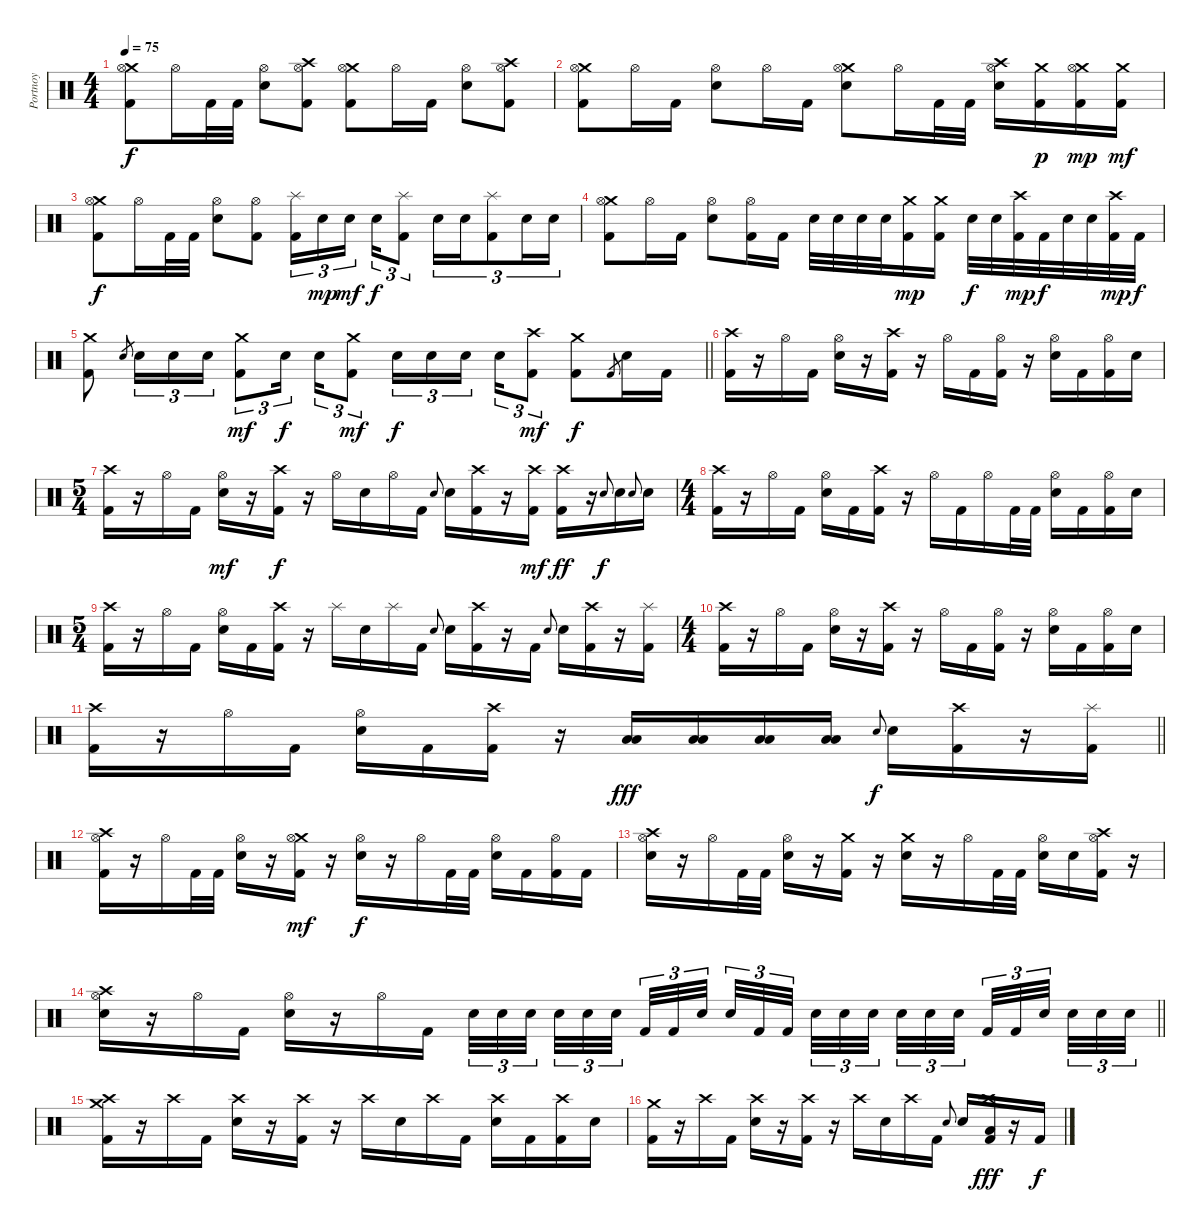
\track ("Portnoy" "Portnoy") {instrument percussion}
\staff {score}
\articulation defaults
\ts (4 4)
\tempo 75
\clef neutral
\ks c
("Crash medium (hit)" "Hi-Hat (open)" "Kick (hit) 2").8{dy f} "Hi-Hat (open)".16 "Kick (hit) 2".32 "Kick (hit) 2".32 ("Hi-Hat (open)" "Electric Snare (hit)").8 ("Crash high (hit)" "Hi-Hat (open)" "Kick (hit) 2").8 ("Crash medium (hit)" "Hi-Hat (open)" "Kick (hit) 2").8 "Hi-Hat (open)".16 "Kick (hit) 2".16 ("Hi-Hat (open)" "Electric Snare (hit)").8 ("Crash high (hit)" "Hi-Hat (open)" "Kick (hit) 2").8 |
("Crash medium (hit)" "Hi-Hat (open)" "Kick (hit) 2").8 "Hi-Hat (open)".16 "Kick (hit) 2".16 ("Hi-Hat (open)" "Electric Snare (hit)").8 "Hi-Hat (open)".16 "Kick (hit) 2".16 ("Crash medium (hit)" "Hi-Hat (open)" "Electric Snare (hit)").8 "Hi-Hat (open)".16 "Kick (hit) 2".32 "Kick (hit) 2".32 ("Crash high (hit)" "Hi-Hat (open)" "Electric Snare (hit)").16 ("Crash medium (hit)" "Kick (hit) 2").16{dy p} ("Crash medium (hit)" "Hi-Hat (open)" "Kick (hit) 2").16{dy mp} ("Crash medium (hit)" "Kick (hit) 2").16{dy mf} |
("Crash medium (hit)" "Hi-Hat (open)" "Kick (hit) 2").8{dy f} "Hi-Hat (open)".16 "Kick (hit) 2".32 "Kick (hit) 2".32 ("Hi-Hat (open)" "Electric Snare (hit)").8 ("Hi-Hat (open)" "Kick (hit) 2").8 ("Splash (hit)" "Kick (hit) 2").16{tu (3 2)} "Electric Snare (hit)".16{tu (3 2) dy mp} "Electric Snare (hit)".16{tu (3 2) dy mf beam splitsecondary} "Electric Snare (hit)".16{tu (3 2) dy f} ("Splash (hit)" "Kick (hit) 2").8{tu (3 2)} "Electric Snare (hit)".16{tu (3 2)} "Electric Snare (hit)".16{tu (3 2)} ("Splash (hit)" "Kick (hit) 2").8{tu (3 2)} "Electric Snare (hit)".16{tu (3 2)} "Electric Snare (hit)".16{tu (3 2)} |
("Crash medium (hit)" "Hi-Hat (open)" "Kick (hit) 2").8 "Hi-Hat (open)".16 "Kick (hit) 2".16 ("Hi-Hat (open)" "Electric Snare (hit)").8 ("Hi-Hat (open)" "Kick (hit) 2").16 "Kick (hit) 2".16 "Electric Snare (hit)".32 "Electric Snare (hit)".32 "Electric Snare (hit)".32 "Electric Snare (hit)".32 ("Crash medium (hit)" "Kick (hit) 2").16{dy mp} ("Crash medium (hit)" "Kick (hit) 2").16 "Electric Snare (hit)".32{dy f} "Electric Snare (hit)".32 ("Crash high (hit)" "Kick (hit) 2").32{dy mp} "Kick (hit) 2".32{dy f} "Electric Snare (hit)".32 "Electric Snare (hit)".32 ("Crash high (hit)" "Kick (hit) 2").32{dy mp} "Kick (hit) 2".32{dy f} |
\barLineRight lightlight
("Crash medium (hit)" "Kick (hit) 2").8 "Electric Snare (hit)".8{gr} "Electric Snare (hit)".16{tu (3 2)} "Electric Snare (hit)".16{tu (3 2)} "Electric Snare (hit)".16{tu (3 2)} ("Crash medium (hit)" "Kick (hit) 2").8{tu (3 2) dy mf} "Electric Snare (hit)".16{tu (3 2) dy f beam splitsecondary} "Electric Snare (hit)".16{tu (3 2)} ("Crash medium (hit)" "Kick (hit) 2").8{tu (3 2) dy mf} "Electric Snare (hit)".16{tu (3 2) dy f} "Electric Snare (hit)".16{tu (3 2)} "Electric Snare (hit)".16{tu (3 2) beam splitsecondary} "Electric Snare (hit)".16{tu (3 2)} ("Crash high (hit)" "Kick (hit) 2").8{tu (3 2) dy mf} ("Crash medium (hit)" "Kick (hit) 2").8{dy f} "Kick (hit) 2".8{gr} "Electric Snare (hit)".16 "Kick (hit) 2".16 |
("Crash high (hit)" "Kick (hit) 2").16 r.16 "Hi-Hat (open)".16 "Kick (hit) 2".16 ("Hi-Hat (open)" "Electric Snare (hit)").16 r.16 ("Crash high (hit)" "Kick (hit) 2").16 r.16 "Hi-Hat (open)".16 "Kick (hit) 2".16 ("Hi-Hat (open)" "Kick (hit) 2").16 r.16 ("Hi-Hat (open)" "Electric Snare (hit)").16 "Kick (hit) 2".16 ("Hi-Hat (open)" "Kick (hit) 2").16 "Electric Snare (hit)".16 |
\ts (5 4)
("Crash high (hit)" "Kick (hit) 2").16 r.16 "Hi-Hat (open)".16 "Kick (hit) 2".16 ("Hi-Hat (open)" "Electric Snare (hit)").16{dy mf} r.16 ("Crash high (hit)" "Kick (hit) 2").16{dy f} r.16 "Hi-Hat (open)".16 "Electric Snare (hit)".16 "Hi-Hat (open)".16 "Kick (hit) 2".16 "Electric Snare (hit)".8{gr onbeat} "Electric Snare (hit)".16 ("Crash high (hit)" "Kick (hit) 2").16 r.16 ("Crash high (hit)" "Kick (hit) 2").16{dy mf} ("Crash high (hit)" "Kick (hit) 2").16{dy ff} r.16 "Electric Snare (hit)".8{gr onbeat dy f} "Electric Snare (hit)".16 "Electric Snare (hit)".8{gr onbeat} "Electric Snare (hit)".16 |
\ts (4 4)
("Crash high (hit)" "Kick (hit) 2").16 r.16 "Hi-Hat (open)".16 "Kick (hit) 2".16 ("Hi-Hat (open)" "Electric Snare (hit)").16 "Kick (hit) 2".16 ("Crash high (hit)" "Kick (hit) 2").16 r.16 "Hi-Hat (open)".16 "Kick (hit) 2".16 "Hi-Hat (open)".16 "Kick (hit) 2".32 "Kick (hit) 2".32 ("Hi-Hat (open)" "Electric Snare (hit)").16 "Kick (hit) 2".16 ("Hi-Hat (open)" "Kick (hit) 2").16 "Electric Snare (hit)".16 |
\ts (5 4)
("Crash high (hit)" "Kick (hit) 2").16 r.16 "Hi-Hat (open)".16 "Kick (hit) 2".16 ("Hi-Hat (open)" "Electric Snare (hit)").16 "Kick (hit) 2".16 ("Crash high (hit)" "Kick (hit) 2").16 r.16 "Splash (hit)".16 "Electric Snare (hit)".16 "Splash (hit)".16 "Kick (hit) 2".16 "Electric Snare (hit)".8{gr onbeat} "Electric Snare (hit)".16 ("Crash high (hit)" "Kick (hit) 2").16 r.16 "Kick (hit) 2".16 "Electric Snare (hit)".8{gr onbeat} "Electric Snare (hit)".16 ("Crash high (hit)" "Kick (hit) 2").16 r.16 ("Splash (hit)" "Kick (hit) 2").16 |
\ts (4 4)
("Crash high (hit)" "Kick (hit) 2").16 r.16 "Hi-Hat (open)".16 "Kick (hit) 2".16 ("Hi-Hat (open)" "Electric Snare (hit)").16 r.16 ("Crash high (hit)" "Kick (hit) 2").16 r.16 "Hi-Hat (open)".16 "Kick (hit) 2".16 ("Hi-Hat (open)" "Kick (hit) 2").16 r.16 ("Hi-Hat (open)" "Electric Snare (hit)").16 "Kick (hit) 2".16 ("Hi-Hat (open)" "Kick (hit) 2").16 "Electric Snare (hit)".16 |
\barLineRight lightlight
("Crash high (hit)" "Kick (hit) 2").16 r.16 "Hi-Hat (open)".16 "Kick (hit) 2".16 ("Hi-Hat (open)" "Electric Snare (hit)").16 "Kick (hit) 2".16 ("Crash high (hit)" "Kick (hit) 2").16 r.16 ("Low Floor Tom (hit)" "Low Floor Tom (hit)").16{dy fff} ("Low Floor Tom (hit)" "Low Floor Tom (hit)").16 ("Low Floor Tom (hit)" "Low Floor Tom (hit)").16 ("Low Floor Tom (hit)" "Low Floor Tom (hit)").16 "Electric Snare (hit)".8{gr onbeat dy f} "Electric Snare (hit)".16 ("Crash high (hit)" "Kick (hit) 2").16 r.16 ("Splash (hit)" "Kick (hit) 2").16 |
("Crash high (hit)" "Hi-Hat (open)" "Kick (hit) 2").16 r.16 "Hi-Hat (open)".16 "Kick (hit) 2".32 "Kick (hit) 2".32 ("Hi-Hat (open)" "Electric Snare (hit)").16 r.16 ("Crash medium (hit)" "Hi-Hat (open)" "Kick (hit) 2").16{dy mf} r.16 ("Hi-Hat (open)" "Electric Snare (hit)").16{dy f} r.16 "Hi-Hat (open)".16 "Kick (hit) 2".32 "Kick (hit) 2".32 ("Hi-Hat (open)" "Electric Snare (hit)").16 "Kick (hit) 2".16 ("Hi-Hat (open)" "Kick (hit) 2").16 "Kick (hit) 2".16 |
("Crash high (hit)" "Hi-Hat (open)" "Electric Snare (hit)").16 r.16 "Hi-Hat (open)".16 "Kick (hit) 2".32 "Kick (hit) 2".32 ("Hi-Hat (open)" "Electric Snare (hit)").16 r.16 ("Crash medium (hit)" "Kick (hit) 2").16 r.16 ("Crash medium (hit)" "Electric Snare (hit)").16 r.16 "Hi-Hat (open)".16 "Kick (hit) 2".32 "Kick (hit) 2".32 ("Hi-Hat (open)" "Electric Snare (hit)").16 "Electric Snare (hit)".16 ("Crash high (hit)" "Hi-Hat (open)" "Kick (hit) 2").16 r.16 |
\barLineRight lightlight
("Crash high (hit)" "Hi-Hat (open)" "Electric Snare (hit)").16 r.16 "Hi-Hat (open)".16 "Kick (hit) 2".16 ("Hi-Hat (open)" "Electric Snare (hit)").16 r.16 "Hi-Hat (open)".16 "Kick (hit) 2".16 "Electric Snare (hit)".32{tu (3 2)} "Electric Snare (hit)".32{tu (3 2)} "Electric Snare (hit)".32{tu (3 2) beam splitsecondary} "Electric Snare (hit)".32{tu (3 2)} "Electric Snare (hit)".32{tu (3 2)} "Electric Snare (hit)".32{tu (3 2) beam splitsecondary} "Kick (hit) 2".32{tu (3 2)} "Kick (hit) 2".32{tu (3 2)} "Electric Snare (hit)".32{tu (3 2) beam splitsecondary} "Electric Snare (hit)".32{tu (3 2)} "Kick (hit) 2".32{tu (3 2)} "Kick (hit) 2".32{tu (3 2)} "Electric Snare (hit)".32{tu (3 2)} "Electric Snare (hit)".32{tu (3 2)} "Electric Snare (hit)".32{tu (3 2) beam splitsecondary} "Electric Snare (hit)".32{tu (3 2)} "Electric Snare (hit)".32{tu (3 2)} "Electric Snare (hit)".32{tu (3 2) beam splitsecondary} "Kick (hit) 2".32{tu (3 2)} "Kick (hit) 2".32{tu (3 2)} "Electric Snare (hit)".32{tu (3 2) beam splitsecondary} "Electric Snare (hit)".32{tu (3 2)} "Electric Snare (hit)".32{tu (3 2)} "Electric Snare (hit)".32{tu (3 2)} |
("Crash medium (hit)" "Crash high (hit)" "Kick (hit) 2").16 r.16 "Crash high (hit)".16 "Kick (hit) 2".16 ("Crash high (hit)" "Electric Snare (hit)").16 r.16 ("Crash high (hit)" "Kick (hit) 2").16 r.16 "Crash high (hit)".16 "Electric Snare (hit)".16 "Crash high (hit)".16 "Kick (hit) 2".16 ("Crash high (hit)" "Electric Snare (hit)").16 "Kick (hit) 2".16 ("Crash high (hit)" "Kick (hit) 2").16 "Electric Snare (hit)".16 |
("Crash medium (hit)" "Kick (hit) 2").16 r.16 "Crash high (hit)".16 "Kick (hit) 2".16 ("Crash high (hit)" "Electric Snare (hit)").16 r.16 ("Crash high (hit)" "Kick (hit) 2").16 r.16 "Crash high (hit)".16 "Electric Snare (hit)".16 "Crash high (hit)".16 "Kick (hit) 2".16 "Electric Snare (hit)".8{gr onbeat} "Electric Snare (hit)".16 ("Crash high (hit)" "Low Floor Tom (hit)" "Kick (hit) 2").16{dy fff} r.16 "Kick (hit) 2".16{dy f}
